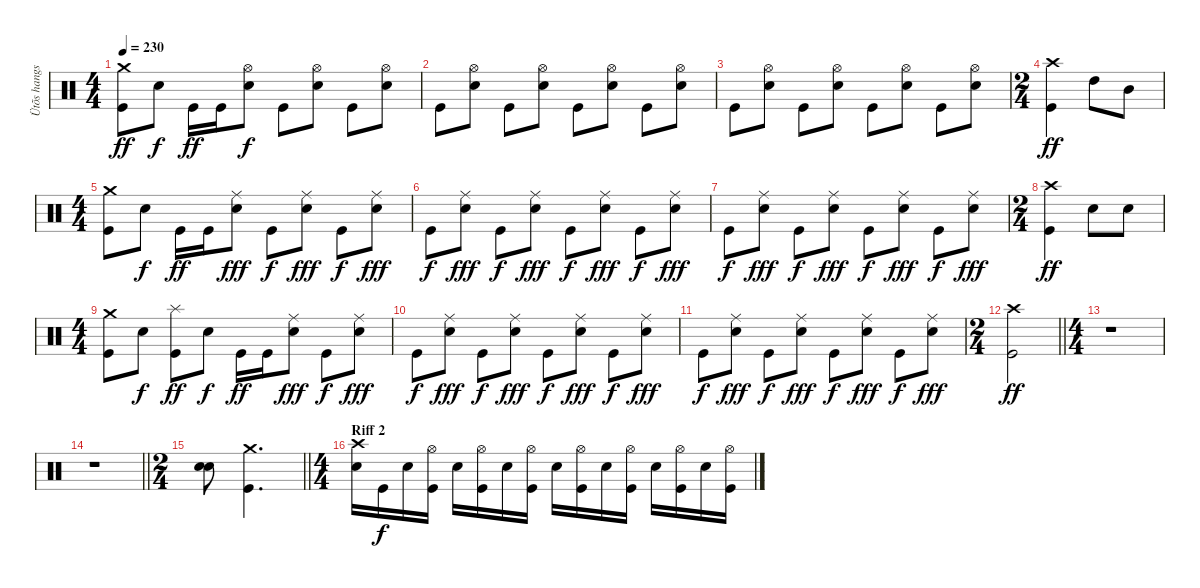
\track ("Ütõs hangszer" "Ütõs hangs") {instrument percussion}
\staff {score}
\articulation defaults
\ts (4 4)
\tempo 230
\clef neutral
\ks c
("Crash medium (hit)" "Kick (hit)").8{dy ff} "Electric Snare (hit)".8{dy f} "Kick (hit)".16{dy ff} "Kick (hit)".16 ("Hi-Hat (open)" "Electric Snare (hit)").8{dy f} "Kick (hit)".8 ("Hi-Hat (open)" "Electric Snare (hit)").8 "Kick (hit)".8 ("Hi-Hat (open)" "Electric Snare (hit)").8 |
"Kick (hit)".8 ("Hi-Hat (open)" "Electric Snare (hit)").8 "Kick (hit)".8 ("Hi-Hat (open)" "Electric Snare (hit)").8 "Kick (hit)".8 ("Hi-Hat (open)" "Electric Snare (hit)").8 "Kick (hit)".8 ("Hi-Hat (open)" "Electric Snare (hit)").8 |
"Kick (hit)".8 ("Hi-Hat (open)" "Electric Snare (hit)").8 "Kick (hit)".8 ("Hi-Hat (open)" "Electric Snare (hit)").8 "Kick (hit)".8 ("Hi-Hat (open)" "Electric Snare (hit)").8 "Kick (hit)".8 ("Hi-Hat (open)" "Electric Snare (hit)").8 |
\ts (2 4)
("Crash high (hit)" "Kick (hit)").4{dy ff} "High Tom (hit)".8 "Mid Tom (hit)".8 |
\ts (4 4)
("Crash medium (hit)" "Kick (hit)").8 "Electric Snare (hit)".8{dy f} "Kick (hit)".16{dy ff} "Kick (hit)".16 ("Ride (middle)" "Electric Snare (hit)").8{dy fff} "Kick (hit)".8{dy f} ("Ride (middle)" "Electric Snare (hit)").8{dy fff} "Kick (hit)".8{dy f} ("Ride (middle)" "Electric Snare (hit)").8{dy fff} |
"Kick (hit)".8{dy f} ("Ride (middle)" "Electric Snare (hit)").8{dy fff} "Kick (hit)".8{dy f} ("Ride (middle)" "Electric Snare (hit)").8{dy fff} "Kick (hit)".8{dy f} ("Ride (middle)" "Electric Snare (hit)").8{dy fff} "Kick (hit)".8{dy f} ("Ride (middle)" "Electric Snare (hit)").8{dy fff} |
"Kick (hit)".8{dy f} ("Ride (middle)" "Electric Snare (hit)").8{dy fff} "Kick (hit)".8{dy f} ("Ride (middle)" "Electric Snare (hit)").8{dy fff} "Kick (hit)".8{dy f} ("Ride (middle)" "Electric Snare (hit)").8{dy fff} "Kick (hit)".8{dy f} ("Ride (middle)" "Electric Snare (hit)").8{dy fff} |
\ts (2 4)
("Crash high (hit)" "Kick (hit)").4{dy ff} "Electric Snare (hit)".8 "Electric Snare (hit)".8 |
\ts (4 4)
("Crash medium (hit)" "Kick (hit)").8 "Electric Snare (hit)".8{dy f} ("Splash (hit)" "Kick (hit)").8{dy ff} "Electric Snare (hit)".8{dy f} "Kick (hit)".16{dy ff} "Kick (hit)".16 ("Ride (middle)" "Electric Snare (hit)").8{dy fff} "Kick (hit)".8{dy f} ("Ride (middle)" "Electric Snare (hit)").8{dy fff} |
"Kick (hit)".8{dy f} ("Ride (middle)" "Electric Snare (hit)").8{dy fff} "Kick (hit)".8{dy f} ("Ride (middle)" "Electric Snare (hit)").8{dy fff} "Kick (hit)".8{dy f} ("Ride (middle)" "Electric Snare (hit)").8{dy fff} "Kick (hit)".8{dy f} ("Ride (middle)" "Electric Snare (hit)").8{dy fff} |
"Kick (hit)".8{dy f} ("Ride (middle)" "Electric Snare (hit)").8{dy fff} "Kick (hit)".8{dy f} ("Ride (middle)" "Electric Snare (hit)").8{dy fff} "Kick (hit)".8{dy f} ("Ride (middle)" "Electric Snare (hit)").8{dy fff} "Kick (hit)".8{dy f} ("Ride (middle)" "Electric Snare (hit)").8{dy fff} |
\ts (2 4)
\barLineRight lightlight
("Crash high (hit)" "Kick (hit)").2{dy ff} |
\ts (4 4)
r.1 |
\barLineRight lightlight
r.1 |
\ts (2 4)
\section ("" "")
\barLineRight lightlight
("Electric Snare (hit)" "Electric Snare (hit)").8{bu 240} ("Crash medium (hit)" "Kick (hit)").4{d} |
\ts (4 4)
\section ("" "Riff 2")
("Crash high (hit)" "Electric Snare (hit)").16 "Kick (hit)".16{dy f} "Electric Snare (hit)".16 ("Hi-Hat (open)" "Kick (hit)").16 "Electric Snare (hit)".16 ("Hi-Hat (open)" "Kick (hit)").16 "Electric Snare (hit)".16 ("Hi-Hat (open)" "Kick (hit)").16 "Electric Snare (hit)".16 ("Hi-Hat (open)" "Kick (hit)").16 "Electric Snare (hit)".16 ("Hi-Hat (open)" "Kick (hit)").16 "Electric Snare (hit)".16 ("Hi-Hat (open)" "Kick (hit)").16 "Electric Snare (hit)".16 ("Hi-Hat (open)" "Kick (hit)").16
